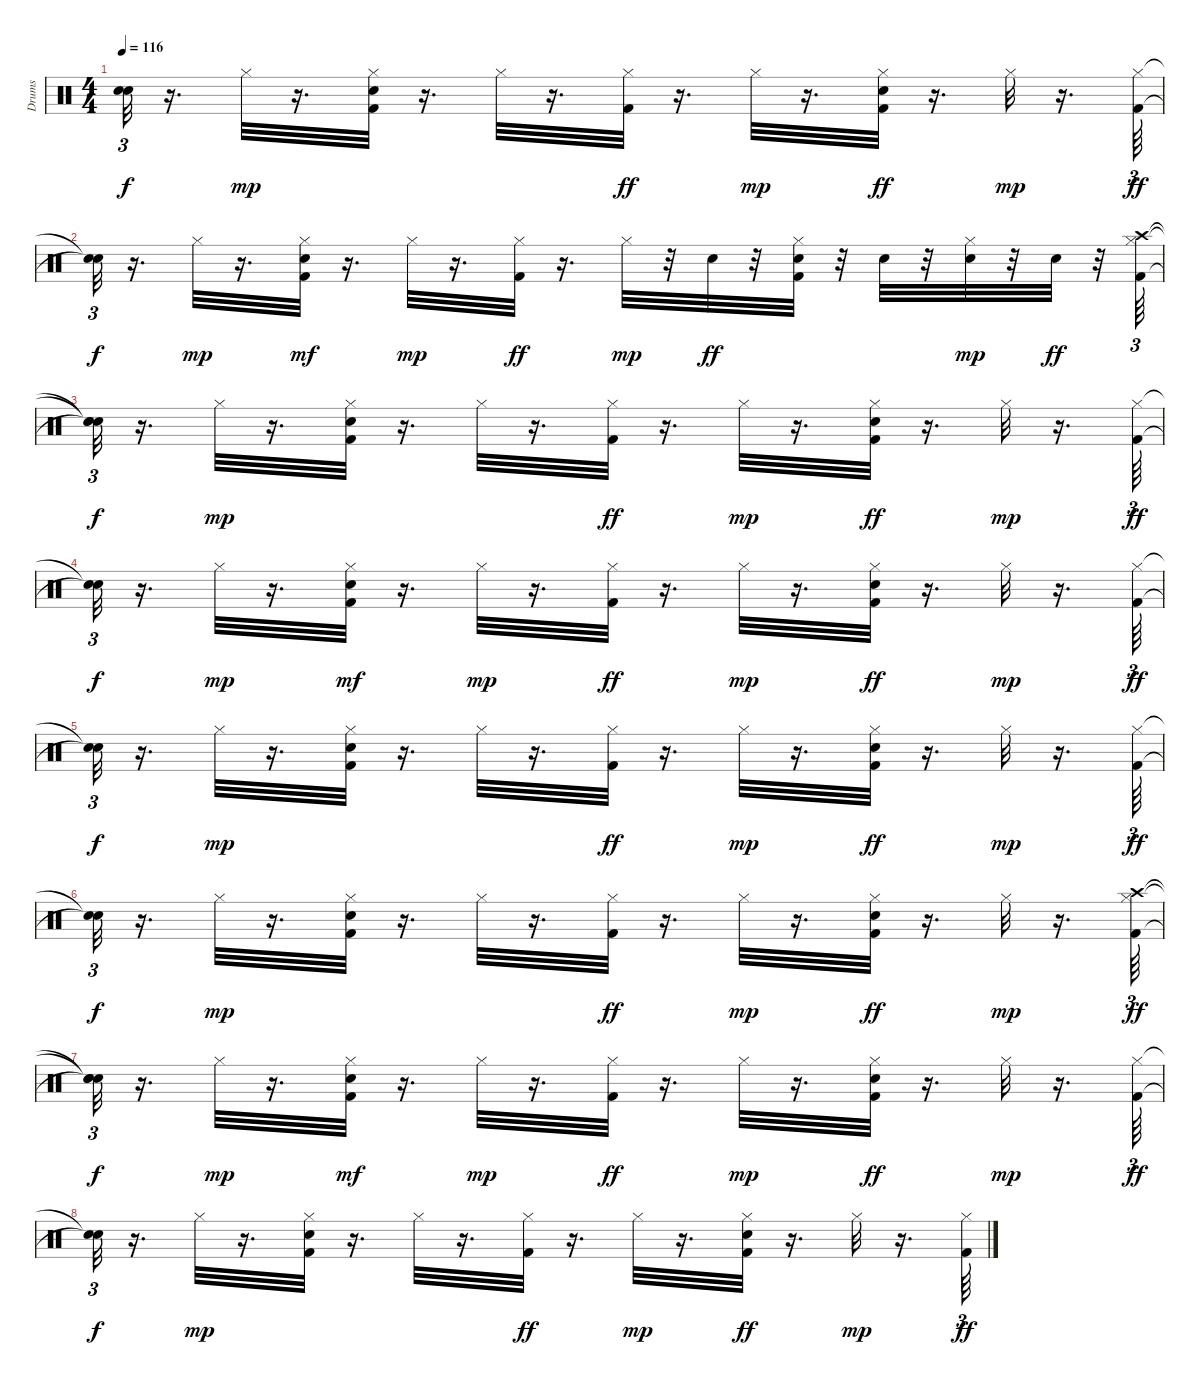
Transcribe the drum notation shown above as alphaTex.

\track ("Drums   " "Drums   ") {instrument percussion}
\staff {score}
\articulation defaults
\ts (4 4)
\tempo 116
\clef neutral
\ks c
("Snare (hit)"{t} "Snare (hit)"{t}).32{tu (3 2) dy f} r.16{d} "Hi-Hat (closed)".32{dy mp} r.16{d} ("Kick (hit) 2" "Snare (hit) 2" "Hi-Hat (closed)").32 r.16{d} "Hi-Hat (closed)".32 r.16{d} ("Hi-Hat (closed)" "Kick (hit) 2").32{dy ff} r.16{d} "Hi-Hat (closed)".32{dy mp} r.16{d} ("Kick (hit) 2" "Hi-Hat (closed)" "Snare (hit) 2").32{dy ff} r.16{d} "Hi-Hat (closed)".32{dy mp} r.16{d} ("Hi-Hat (closed)" "Kick (hit) 2").64{tu (3 2) dy ff} |
("Snare (hit)"{t} "Snare (hit)"{t}).32{tu (3 2) dy f} r.16{d} "Hi-Hat (closed)".32{dy mp} r.16{d} ("Kick (hit) 2" "Snare (hit) 2" "Hi-Hat (closed)").32{dy mf} r.16{d} "Hi-Hat (closed)".32{dy mp} r.16{d} ("Hi-Hat (closed)" "Kick (hit) 2").32{dy ff} r.16{d} "Hi-Hat (closed)".32{dy mp} r.32 "Snare (hit) 2".32{dy ff} r.32 ("Kick (hit) 2" "Hi-Hat (closed)" "Snare (hit) 2").32 r.32 "Snare (hit) 2".32 r.32 ("Snare (hit) 2" "Hi-Hat (closed)").32{dy mp} r.32 "Snare (hit) 2".32{dy ff} r.32 ("Crash high (hit)" "Hi-Hat (closed)" "Kick (hit) 2").64{tu (3 2)} |
("Snare (hit)"{t} "Snare (hit)"{t} "Snare (hit)"{t}).32{tu (3 2) dy f} r.16{d} "Hi-Hat (closed)".32{dy mp} r.16{d} ("Kick (hit) 2" "Snare (hit) 2" "Hi-Hat (closed)").32 r.16{d} "Hi-Hat (closed)".32 r.16{d} ("Hi-Hat (closed)" "Kick (hit) 2").32{dy ff} r.16{d} "Hi-Hat (closed)".32{dy mp} r.16{d} ("Kick (hit) 2" "Hi-Hat (closed)" "Snare (hit) 2").32{dy ff} r.16{d} "Hi-Hat (closed)".32{dy mp} r.16{d} ("Hi-Hat (closed)" "Kick (hit) 2").64{tu (3 2) dy ff} |
("Snare (hit)"{t} "Snare (hit)"{t}).32{tu (3 2) dy f} r.16{d} "Hi-Hat (closed)".32{dy mp} r.16{d} ("Kick (hit) 2" "Snare (hit) 2" "Hi-Hat (closed)").32{dy mf} r.16{d} "Hi-Hat (closed)".32{dy mp} r.16{d} ("Hi-Hat (closed)" "Kick (hit) 2").32{dy ff} r.16{d} "Hi-Hat (closed)".32{dy mp} r.16{d} ("Kick (hit) 2" "Hi-Hat (closed)" "Snare (hit) 2").32{dy ff} r.16{d} "Hi-Hat (closed)".32{dy mp} r.16{d} ("Hi-Hat (closed)" "Kick (hit) 2").64{tu (3 2) dy ff} |
("Snare (hit)"{t} "Snare (hit)"{t}).32{tu (3 2) dy f} r.16{d} "Hi-Hat (closed)".32{dy mp} r.16{d} ("Kick (hit) 2" "Snare (hit) 2" "Hi-Hat (closed)").32 r.16{d} "Hi-Hat (closed)".32 r.16{d} ("Hi-Hat (closed)" "Kick (hit) 2").32{dy ff} r.16{d} "Hi-Hat (closed)".32{dy mp} r.16{d} ("Kick (hit) 2" "Hi-Hat (closed)" "Snare (hit) 2").32{dy ff} r.16{d} "Hi-Hat (closed)".32{dy mp} r.16{d} ("Hi-Hat (closed)" "Kick (hit) 2").64{tu (3 2) dy ff} |
("Snare (hit)"{t} "Snare (hit)"{t}).32{tu (3 2) dy f} r.16{d} "Hi-Hat (closed)".32{dy mp} r.16{d} ("Kick (hit) 2" "Snare (hit) 2" "Hi-Hat (closed)").32 r.16{d} "Hi-Hat (closed)".32 r.16{d} ("Hi-Hat (closed)" "Kick (hit) 2").32{dy ff} r.16{d} "Hi-Hat (closed)".32{dy mp} r.16{d} ("Kick (hit) 2" "Hi-Hat (closed)" "Snare (hit) 2").32{dy ff} r.16{d} "Hi-Hat (closed)".32{dy mp} r.16{d} ("Crash high (hit)" "Hi-Hat (closed)" "Kick (hit) 2").64{tu (3 2) dy ff} |
("Snare (hit)"{t} "Snare (hit)"{t} "Snare (hit)"{t}).32{tu (3 2) dy f} r.16{d} "Hi-Hat (closed)".32{dy mp} r.16{d} ("Kick (hit) 2" "Snare (hit) 2" "Hi-Hat (closed)").32{dy mf} r.16{d} "Hi-Hat (closed)".32{dy mp} r.16{d} ("Hi-Hat (closed)" "Kick (hit) 2").32{dy ff} r.16{d} "Hi-Hat (closed)".32{dy mp} r.16{d} ("Kick (hit) 2" "Hi-Hat (closed)" "Snare (hit) 2").32{dy ff} r.16{d} "Hi-Hat (closed)".32{dy mp} r.16{d} ("Hi-Hat (closed)" "Kick (hit) 2").64{tu (3 2) dy ff} |
("Snare (hit)"{t} "Snare (hit)"{t}).32{tu (3 2) dy f} r.16{d} "Hi-Hat (closed)".32{dy mp} r.16{d} ("Kick (hit) 2" "Snare (hit) 2" "Hi-Hat (closed)").32 r.16{d} "Hi-Hat (closed)".32 r.16{d} ("Hi-Hat (closed)" "Kick (hit) 2").32{dy ff} r.16{d} "Hi-Hat (closed)".32{dy mp} r.16{d} ("Kick (hit) 2" "Hi-Hat (closed)" "Snare (hit) 2").32{dy ff} r.16{d} "Hi-Hat (closed)".32{dy mp} r.16{d} ("Hi-Hat (closed)" "Kick (hit) 2").64{tu (3 2) dy ff}
